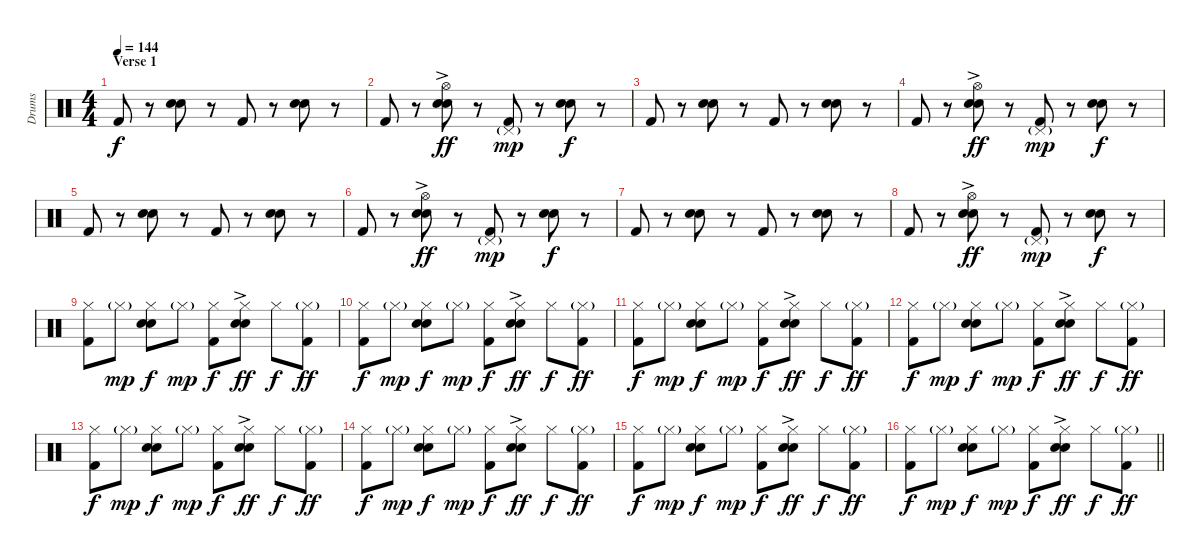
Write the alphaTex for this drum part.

\track ("Drums" "Drums") {instrument percussion}
\staff {score}
\articulation defaults
\ts (4 4)
\section ("" "Verse 1")
\tempo 144
\clef neutral
\ks c "Kick (hit) 2".8{dy f}
r.8 ("Electric Snare (hit)" "Snare (hit) 2").8 r.8 "Kick (hit) 2".8 r.8 ("Electric Snare (hit)" "Snare (hit) 2").8 r.8 |
"Kick (hit) 2".8 r.8 ("Hi-Hat (open)"{ac} "Electric Snare (hit)" "Snare (hit) 2").8{dy ff} r.8 ("Pedal Hi-Hat (hit)"{g} "Kick (hit) 2").8{dy mp} r.8 ("Electric Snare (hit)" "Snare (hit) 2").8{dy f} r.8 |
"Kick (hit) 2".8 r.8 ("Electric Snare (hit)" "Snare (hit) 2").8 r.8 "Kick (hit) 2".8 r.8 ("Electric Snare (hit)" "Snare (hit) 2").8 r.8 |
"Kick (hit) 2".8 r.8 ("Hi-Hat (open)"{ac} "Electric Snare (hit)" "Snare (hit) 2").8{dy ff} r.8 ("Pedal Hi-Hat (hit)"{g} "Kick (hit) 2").8{dy mp} r.8 ("Electric Snare (hit)" "Snare (hit) 2").8{dy f} r.8 |
"Kick (hit) 2".8 r.8 ("Electric Snare (hit)" "Snare (hit) 2").8 r.8 "Kick (hit) 2".8 r.8 ("Electric Snare (hit)" "Snare (hit) 2").8 r.8 |
"Kick (hit) 2".8 r.8 ("Hi-Hat (open)"{ac} "Electric Snare (hit)" "Snare (hit) 2").8{dy ff} r.8 ("Pedal Hi-Hat (hit)"{g} "Kick (hit) 2").8{dy mp} r.8 ("Electric Snare (hit)" "Snare (hit) 2").8{dy f} r.8 |
"Kick (hit) 2".8 r.8 ("Electric Snare (hit)" "Snare (hit) 2").8 r.8 "Kick (hit) 2".8 r.8 ("Electric Snare (hit)" "Snare (hit) 2").8 r.8 |
"Kick (hit) 2".8 r.8 ("Hi-Hat (open)"{ac} "Electric Snare (hit)" "Snare (hit) 2").8{dy ff} r.8 ("Pedal Hi-Hat (hit)"{g} "Kick (hit) 2").8{dy mp} r.8 ("Electric Snare (hit)" "Snare (hit) 2").8{dy f} r.8 |
("Hi-Hat (closed)" "Kick (hit) 2").8 "Hi-Hat (closed)"{g}.8{dy mp} ("Hi-Hat (closed)" "Electric Snare (hit)" "Snare (hit) 2").8{dy f} "Hi-Hat (closed)"{g}.8{dy mp} ("Hi-Hat (closed)" "Kick (hit) 2").8{dy f} ("Hi-Hat (closed)"{ac} "Electric Snare (hit)" "Snare (hit) 2").8{dy ff} "Hi-Hat (closed)".8{dy f} ("Hi-Hat (closed)"{g} "Kick (hit) 2").8{dy ff} |
("Hi-Hat (closed)" "Kick (hit) 2").8{dy f} "Hi-Hat (closed)"{g}.8{dy mp} ("Hi-Hat (closed)" "Electric Snare (hit)" "Snare (hit) 2").8{dy f} "Hi-Hat (closed)"{g}.8{dy mp} ("Hi-Hat (closed)" "Kick (hit) 2").8{dy f} ("Hi-Hat (closed)"{ac} "Electric Snare (hit)" "Snare (hit) 2").8{dy ff} "Hi-Hat (closed)".8{dy f} ("Hi-Hat (closed)"{g} "Kick (hit) 2").8{dy ff} |
("Hi-Hat (closed)" "Kick (hit) 2").8{dy f} "Hi-Hat (closed)"{g}.8{dy mp} ("Hi-Hat (closed)" "Electric Snare (hit)" "Snare (hit) 2").8{dy f} "Hi-Hat (closed)"{g}.8{dy mp} ("Hi-Hat (closed)" "Kick (hit) 2").8{dy f} ("Hi-Hat (closed)"{ac} "Electric Snare (hit)" "Snare (hit) 2").8{dy ff} "Hi-Hat (closed)".8{dy f} ("Hi-Hat (closed)"{g} "Kick (hit) 2").8{dy ff} |
("Hi-Hat (closed)" "Kick (hit) 2").8{dy f} "Hi-Hat (closed)"{g}.8{dy mp} ("Hi-Hat (closed)" "Electric Snare (hit)" "Snare (hit) 2").8{dy f} "Hi-Hat (closed)"{g}.8{dy mp} ("Hi-Hat (closed)" "Kick (hit) 2").8{dy f} ("Hi-Hat (closed)"{ac} "Electric Snare (hit)" "Snare (hit) 2").8{dy ff} "Hi-Hat (closed)".8{dy f} ("Hi-Hat (closed)"{g} "Kick (hit) 2").8{dy ff} |
("Hi-Hat (closed)" "Kick (hit) 2").8{dy f} "Hi-Hat (closed)"{g}.8{dy mp} ("Hi-Hat (closed)" "Electric Snare (hit)" "Snare (hit) 2").8{dy f} "Hi-Hat (closed)"{g}.8{dy mp} ("Hi-Hat (closed)" "Kick (hit) 2").8{dy f} ("Hi-Hat (closed)"{ac} "Electric Snare (hit)" "Snare (hit) 2").8{dy ff} "Hi-Hat (closed)".8{dy f} ("Hi-Hat (closed)"{g} "Kick (hit) 2").8{dy ff} |
("Hi-Hat (closed)" "Kick (hit) 2").8{dy f} "Hi-Hat (closed)"{g}.8{dy mp} ("Hi-Hat (closed)" "Electric Snare (hit)" "Snare (hit) 2").8{dy f} "Hi-Hat (closed)"{g}.8{dy mp} ("Hi-Hat (closed)" "Kick (hit) 2").8{dy f} ("Hi-Hat (closed)"{ac} "Electric Snare (hit)" "Snare (hit) 2").8{dy ff} "Hi-Hat (closed)".8{dy f} ("Hi-Hat (closed)"{g} "Kick (hit) 2").8{dy ff} |
("Hi-Hat (closed)" "Kick (hit) 2").8{dy f} "Hi-Hat (closed)"{g}.8{dy mp} ("Hi-Hat (closed)" "Electric Snare (hit)" "Snare (hit) 2").8{dy f} "Hi-Hat (closed)"{g}.8{dy mp} ("Hi-Hat (closed)" "Kick (hit) 2").8{dy f} ("Hi-Hat (closed)"{ac} "Electric Snare (hit)" "Snare (hit) 2").8{dy ff} "Hi-Hat (closed)".8{dy f} ("Hi-Hat (closed)"{g} "Kick (hit) 2").8{dy ff} |
\barLineRight lightlight
("Hi-Hat (closed)" "Kick (hit) 2").8{dy f} "Hi-Hat (closed)"{g}.8{dy mp} ("Hi-Hat (closed)" "Electric Snare (hit)" "Snare (hit) 2").8{dy f} "Hi-Hat (closed)"{g}.8{dy mp} ("Hi-Hat (closed)" "Kick (hit) 2").8{dy f} ("Hi-Hat (closed)"{ac} "Electric Snare (hit)" "Snare (hit) 2").8{dy ff} "Hi-Hat (closed)".8{dy f} ("Hi-Hat (closed)"{g} "Kick (hit) 2").8{dy ff}
